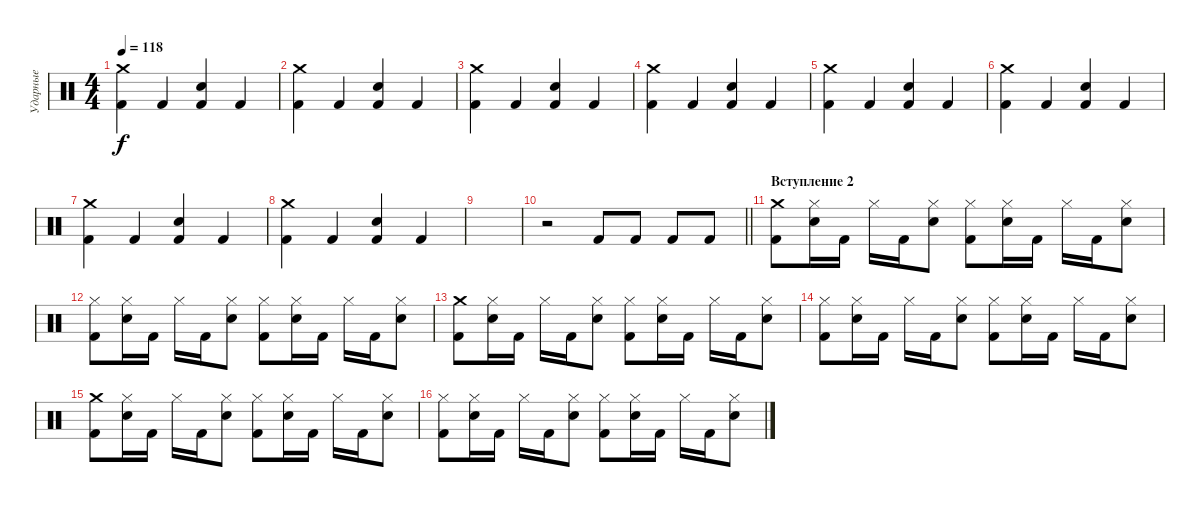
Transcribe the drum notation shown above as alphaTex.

\track ("Ударные" "Ударные") {instrument percussion}
\staff {score}
\articulation defaults
\ts (4 4)
\tempo 118
\clef neutral
\ks c
("Crash medium (hit)" "Kick (hit) 2").4{dy f} "Kick (hit) 2".4 ("Snare (hit) 2" "Kick (hit) 2").4 "Kick (hit) 2".4 |
("Crash medium (hit)" "Kick (hit) 2").4 "Kick (hit) 2".4 ("Snare (hit) 2" "Kick (hit) 2").4 "Kick (hit) 2".4 |
("Crash medium (hit)" "Kick (hit) 2").4 "Kick (hit) 2".4 ("Snare (hit) 2" "Kick (hit) 2").4 "Kick (hit) 2".4 |
("Crash medium (hit)" "Kick (hit) 2").4 "Kick (hit) 2".4 ("Snare (hit) 2" "Kick (hit) 2").4 "Kick (hit) 2".4 |
("Crash medium (hit)" "Kick (hit) 2").4 "Kick (hit) 2".4 ("Snare (hit) 2" "Kick (hit) 2").4 "Kick (hit) 2".4 |
("Crash medium (hit)" "Kick (hit) 2").4 "Kick (hit) 2".4 ("Snare (hit) 2" "Kick (hit) 2").4 "Kick (hit) 2".4 |
("Crash medium (hit)" "Kick (hit) 2").4 "Kick (hit) 2".4 ("Snare (hit) 2" "Kick (hit) 2").4 "Kick (hit) 2".4 |
("Crash medium (hit)" "Kick (hit) 2").4 "Kick (hit) 2".4 ("Snare (hit) 2" "Kick (hit) 2").4 "Kick (hit) 2".4 |
|
\barLineRight lightlight
r.2 "Kick (hit) 2".8 "Kick (hit) 2".8 "Kick (hit) 2".8 "Kick (hit) 2".8 |
\section ("" "Вступление 2")
("Crash medium (hit)" "Kick (hit) 2").8 ("Hi-Hat (closed)" "Snare (hit) 2").16 "Kick (hit) 2".16 "Hi-Hat (closed)".16 "Kick (hit) 2".16 ("Hi-Hat (closed)" "Snare (hit) 2").8 ("Hi-Hat (closed)" "Kick (hit) 2").8 ("Hi-Hat (closed)" "Snare (hit) 2").16 "Kick (hit) 2".16 "Hi-Hat (closed)".16 "Kick (hit) 2".16 ("Hi-Hat (closed)" "Snare (hit) 2").8 |
("Hi-Hat (closed)" "Kick (hit) 2").8 ("Hi-Hat (closed)" "Snare (hit) 2").16 "Kick (hit) 2".16 "Hi-Hat (closed)".16 "Kick (hit) 2".16 ("Hi-Hat (closed)" "Snare (hit) 2").8 ("Hi-Hat (closed)" "Kick (hit) 2").8 ("Hi-Hat (closed)" "Snare (hit) 2").16 "Kick (hit) 2".16 "Hi-Hat (closed)".16 "Kick (hit) 2".16 ("Hi-Hat (closed)" "Snare (hit) 2").8 |
("Crash medium (hit)" "Kick (hit) 2").8 ("Hi-Hat (closed)" "Snare (hit) 2").16 "Kick (hit) 2".16 "Hi-Hat (closed)".16 "Kick (hit) 2".16 ("Hi-Hat (closed)" "Snare (hit) 2").8 ("Hi-Hat (closed)" "Kick (hit) 2").8 ("Hi-Hat (closed)" "Snare (hit) 2").16 "Kick (hit) 2".16 "Hi-Hat (closed)".16 "Kick (hit) 2".16 ("Hi-Hat (closed)" "Snare (hit) 2").8 |
("Hi-Hat (closed)" "Kick (hit) 2").8 ("Hi-Hat (closed)" "Snare (hit) 2").16 "Kick (hit) 2".16 "Hi-Hat (closed)".16 "Kick (hit) 2".16 ("Hi-Hat (closed)" "Snare (hit) 2").8 ("Hi-Hat (closed)" "Kick (hit) 2").8 ("Hi-Hat (closed)" "Snare (hit) 2").16 "Kick (hit) 2".16 "Hi-Hat (closed)".16 "Kick (hit) 2".16 ("Hi-Hat (closed)" "Snare (hit) 2").8 |
("Crash medium (hit)" "Kick (hit) 2").8 ("Hi-Hat (closed)" "Snare (hit) 2").16 "Kick (hit) 2".16 "Hi-Hat (closed)".16 "Kick (hit) 2".16 ("Hi-Hat (closed)" "Snare (hit) 2").8 ("Hi-Hat (closed)" "Kick (hit) 2").8 ("Hi-Hat (closed)" "Snare (hit) 2").16 "Kick (hit) 2".16 "Hi-Hat (closed)".16 "Kick (hit) 2".16 ("Hi-Hat (closed)" "Snare (hit) 2").8 |
("Hi-Hat (closed)" "Kick (hit) 2").8 ("Hi-Hat (closed)" "Snare (hit) 2").16 "Kick (hit) 2".16 "Hi-Hat (closed)".16 "Kick (hit) 2".16 ("Hi-Hat (closed)" "Snare (hit) 2").8 ("Hi-Hat (closed)" "Kick (hit) 2").8 ("Hi-Hat (closed)" "Snare (hit) 2").16 "Kick (hit) 2".16 "Hi-Hat (closed)".16 "Kick (hit) 2".16 ("Hi-Hat (closed)" "Snare (hit) 2").8
